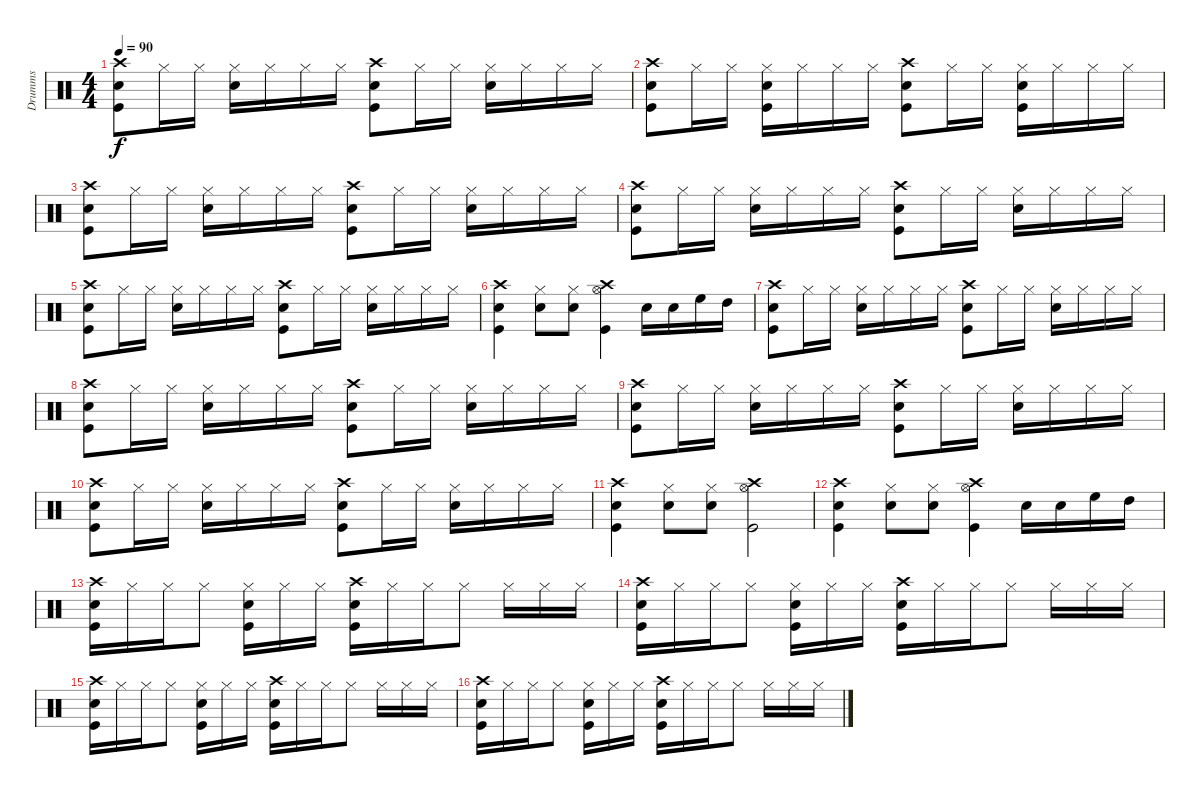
\track ("Drumms" "Drumms") {instrument percussion}
\staff {score}
\articulation defaults
\ts (4 4)
\tempo 90
\clef neutral
\ks c
("Crash high (hit)" "Snare (hit) 2" "Kick (hit)").8{dy f} "Hi-Hat (closed)".16 "Hi-Hat (closed)".16 ("Hi-Hat (closed)" "Snare (hit) 2").16 "Hi-Hat (closed)".16 "Hi-Hat (closed)".16 "Hi-Hat (closed)".16 ("Crash high (hit)" "Snare (hit) 2" "Kick (hit)").8 "Hi-Hat (closed)".16 "Hi-Hat (closed)".16 ("Hi-Hat (closed)" "Snare (hit) 2").16 "Hi-Hat (closed)".16 "Hi-Hat (closed)".16 "Hi-Hat (closed)".16 |
("Crash high (hit)" "Snare (hit) 2" "Kick (hit)").8 "Hi-Hat (closed)".16 "Hi-Hat (closed)".16 ("Hi-Hat (closed)" "Snare (hit) 2" "Kick (hit)").16 "Hi-Hat (closed)".16 "Hi-Hat (closed)".16 "Hi-Hat (closed)".16 ("Crash high (hit)" "Snare (hit) 2" "Kick (hit)").8 "Hi-Hat (closed)".16 "Hi-Hat (closed)".16 ("Hi-Hat (closed)" "Snare (hit) 2" "Kick (hit)").16 "Hi-Hat (closed)".16 "Hi-Hat (closed)".16 "Hi-Hat (closed)".16 |
("Crash high (hit)" "Snare (hit) 2" "Kick (hit)").8 "Hi-Hat (closed)".16 "Hi-Hat (closed)".16 ("Hi-Hat (closed)" "Snare (hit) 2").16 "Hi-Hat (closed)".16 "Hi-Hat (closed)".16 "Hi-Hat (closed)".16 ("Crash high (hit)" "Snare (hit) 2" "Kick (hit)").8 "Hi-Hat (closed)".16 "Hi-Hat (closed)".16 ("Hi-Hat (closed)" "Snare (hit) 2").16 "Hi-Hat (closed)".16 "Hi-Hat (closed)".16 "Hi-Hat (closed)".16 |
("Crash high (hit)" "Snare (hit) 2" "Kick (hit)").8 "Hi-Hat (closed)".16 "Hi-Hat (closed)".16 ("Hi-Hat (closed)" "Snare (hit) 2").16 "Hi-Hat (closed)".16 "Hi-Hat (closed)".16 "Hi-Hat (closed)".16 ("Crash high (hit)" "Snare (hit) 2" "Kick (hit)").8 "Hi-Hat (closed)".16 "Hi-Hat (closed)".16 ("Hi-Hat (closed)" "Snare (hit) 2").16 "Hi-Hat (closed)".16 "Hi-Hat (closed)".16 "Hi-Hat (closed)".16 |
("Crash high (hit)" "Snare (hit) 2" "Kick (hit)").8 "Hi-Hat (closed)".16 "Hi-Hat (closed)".16 ("Hi-Hat (closed)" "Snare (hit) 2").16 "Hi-Hat (closed)".16 "Hi-Hat (closed)".16 "Hi-Hat (closed)".16 ("Crash high (hit)" "Snare (hit) 2" "Kick (hit)").8 "Hi-Hat (closed)".16 "Hi-Hat (closed)".16 ("Hi-Hat (closed)" "Snare (hit) 2").16 "Hi-Hat (closed)".16 "Hi-Hat (closed)".16 "Hi-Hat (closed)".16 |
("Snare (hit) 2" "Kick (hit)" "Crash high (hit)").4 ("Hi-Hat (closed)" "Snare (hit) 2").8 ("Hi-Hat (closed)" "Snare (hit) 2").8 ("Hi-Hat (open)" "Kick (hit)" "Crash high (hit)").4 "Snare (hit) 2".16 "Snare (hit) 2".16 "High Floor Tom (hit)".16 "High Tom (hit)".16 |
("Crash high (hit)" "Snare (hit) 2" "Kick (hit)").8 "Hi-Hat (closed)".16 "Hi-Hat (closed)".16 ("Hi-Hat (closed)" "Snare (hit) 2").16 "Hi-Hat (closed)".16 "Hi-Hat (closed)".16 "Hi-Hat (closed)".16 ("Crash high (hit)" "Snare (hit) 2" "Kick (hit)").8 "Hi-Hat (closed)".16 "Hi-Hat (closed)".16 ("Hi-Hat (closed)" "Snare (hit) 2").16 "Hi-Hat (closed)".16 "Hi-Hat (closed)".16 "Hi-Hat (closed)".16 |
("Crash high (hit)" "Snare (hit) 2" "Kick (hit)").8 "Hi-Hat (closed)".16 "Hi-Hat (closed)".16 ("Hi-Hat (closed)" "Snare (hit) 2").16 "Hi-Hat (closed)".16 "Hi-Hat (closed)".16 "Hi-Hat (closed)".16 ("Crash high (hit)" "Snare (hit) 2" "Kick (hit)").8 "Hi-Hat (closed)".16 "Hi-Hat (closed)".16 ("Hi-Hat (closed)" "Snare (hit) 2").16 "Hi-Hat (closed)".16 "Hi-Hat (closed)".16 "Hi-Hat (closed)".16 |
("Crash high (hit)" "Snare (hit) 2" "Kick (hit)").8 "Hi-Hat (closed)".16 "Hi-Hat (closed)".16 ("Hi-Hat (closed)" "Snare (hit) 2").16 "Hi-Hat (closed)".16 "Hi-Hat (closed)".16 "Hi-Hat (closed)".16 ("Crash high (hit)" "Snare (hit) 2" "Kick (hit)").8 "Hi-Hat (closed)".16 "Hi-Hat (closed)".16 ("Hi-Hat (closed)" "Snare (hit) 2").16 "Hi-Hat (closed)".16 "Hi-Hat (closed)".16 "Hi-Hat (closed)".16 |
("Crash high (hit)" "Snare (hit) 2" "Kick (hit)").8 "Hi-Hat (closed)".16 "Hi-Hat (closed)".16 ("Hi-Hat (closed)" "Snare (hit) 2").16 "Hi-Hat (closed)".16 "Hi-Hat (closed)".16 "Hi-Hat (closed)".16 ("Crash high (hit)" "Snare (hit) 2" "Kick (hit)").8 "Hi-Hat (closed)".16 "Hi-Hat (closed)".16 ("Hi-Hat (closed)" "Snare (hit) 2").16 "Hi-Hat (closed)".16 "Hi-Hat (closed)".16 "Hi-Hat (closed)".16 |
("Snare (hit) 2" "Kick (hit)" "Crash high (hit)").4 ("Hi-Hat (closed)" "Snare (hit) 2").8 ("Hi-Hat (closed)" "Snare (hit) 2").8 ("Hi-Hat (open)" "Kick (hit)" "Crash high (hit)").2 |
("Snare (hit) 2" "Kick (hit)" "Crash high (hit)").4 ("Hi-Hat (closed)" "Snare (hit) 2").8 ("Hi-Hat (closed)" "Snare (hit) 2").8 ("Hi-Hat (open)" "Kick (hit)" "Crash high (hit)").4 "Snare (hit) 2".16 "Snare (hit) 2".16 "High Floor Tom (hit)".16 "High Tom (hit)".16 |
("Crash high (hit)" "Snare (hit) 2" "Kick (hit)").16 "Hi-Hat (closed)".16 "Hi-Hat (closed)".16 "Hi-Hat (closed)".8 ("Hi-Hat (closed)" "Snare (hit) 2" "Kick (hit)").16 "Hi-Hat (closed)".16 "Hi-Hat (closed)".16 ("Crash high (hit)" "Snare (hit) 2" "Kick (hit)").16 "Hi-Hat (closed)".16 "Hi-Hat (closed)".16 "Hi-Hat (closed)".8 "Hi-Hat (closed)".16 "Hi-Hat (closed)".16 "Hi-Hat (closed)".16 |
("Crash high (hit)" "Snare (hit) 2" "Kick (hit)").16 "Hi-Hat (closed)".16 "Hi-Hat (closed)".16 "Hi-Hat (closed)".8 ("Hi-Hat (closed)" "Snare (hit) 2" "Kick (hit)").16 "Hi-Hat (closed)".16 "Hi-Hat (closed)".16 ("Crash high (hit)" "Snare (hit) 2" "Kick (hit)").16 "Hi-Hat (closed)".16 "Hi-Hat (closed)".16 "Hi-Hat (closed)".8 "Hi-Hat (closed)".16 "Hi-Hat (closed)".16 "Hi-Hat (closed)".16 |
("Crash high (hit)" "Snare (hit) 2" "Kick (hit)").16 "Hi-Hat (closed)".16 "Hi-Hat (closed)".16 "Hi-Hat (closed)".8 ("Hi-Hat (closed)" "Snare (hit) 2" "Kick (hit)").16 "Hi-Hat (closed)".16 "Hi-Hat (closed)".16 ("Crash high (hit)" "Snare (hit) 2" "Kick (hit)").16 "Hi-Hat (closed)".16 "Hi-Hat (closed)".16 "Hi-Hat (closed)".8 "Hi-Hat (closed)".16 "Hi-Hat (closed)".16 "Hi-Hat (closed)".16 |
("Crash high (hit)" "Snare (hit) 2" "Kick (hit)").16 "Hi-Hat (closed)".16 "Hi-Hat (closed)".16 "Hi-Hat (closed)".8 ("Hi-Hat (closed)" "Snare (hit) 2" "Kick (hit)").16 "Hi-Hat (closed)".16 "Hi-Hat (closed)".16 ("Crash high (hit)" "Snare (hit) 2" "Kick (hit)").16 "Hi-Hat (closed)".16 "Hi-Hat (closed)".16 "Hi-Hat (closed)".8 "Hi-Hat (closed)".16 "Hi-Hat (closed)".16 "Hi-Hat (closed)".16
